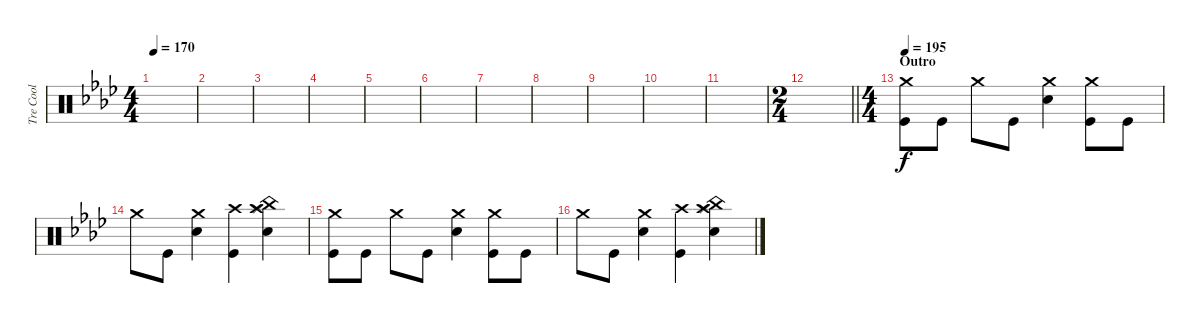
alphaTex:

\track ("Tre Cool" "Tre Cool") {instrument percussion}
\staff {score}
\articulation defaults
\ts (4 4)
\tempo 170
\clef neutral
\ks ab
|
|
|
|
|
|
|
|
|
|
|
\ts (2 4)
\barLineRight lightlight
|
\ts (4 4)
\section ("" "Outro")
\tempo 195
("Crash medium (hit)" "Kick (hit)").8 "Kick (hit)".8 "Crash medium (hit)".8 "Kick (hit)".8 ("Crash medium (hit)" "Electric Snare (hit)").4 ("Crash medium (hit)" "Kick (hit)").8 "Kick (hit)".8 |
"Crash medium (hit)".8 "Kick (hit)".8 ("Crash medium (hit)" "Electric Snare (hit)").4 ("Crash high (hit)" "Kick (hit)").4 ("China (hit)" "Splash (hit)" "Electric Snare (hit)" "Crash high (hit)").4 |
("Crash medium (hit)" "Kick (hit)").8 "Kick (hit)".8 "Crash medium (hit)".8 "Kick (hit)".8 ("Crash medium (hit)" "Electric Snare (hit)").4 ("Crash medium (hit)" "Kick (hit)").8 "Kick (hit)".8 |
"Crash medium (hit)".8 "Kick (hit)".8 ("Crash medium (hit)" "Electric Snare (hit)").4 ("Crash high (hit)" "Kick (hit)").4 ("China (hit)" "Splash (hit)" "Electric Snare (hit)" "Crash high (hit)").4
